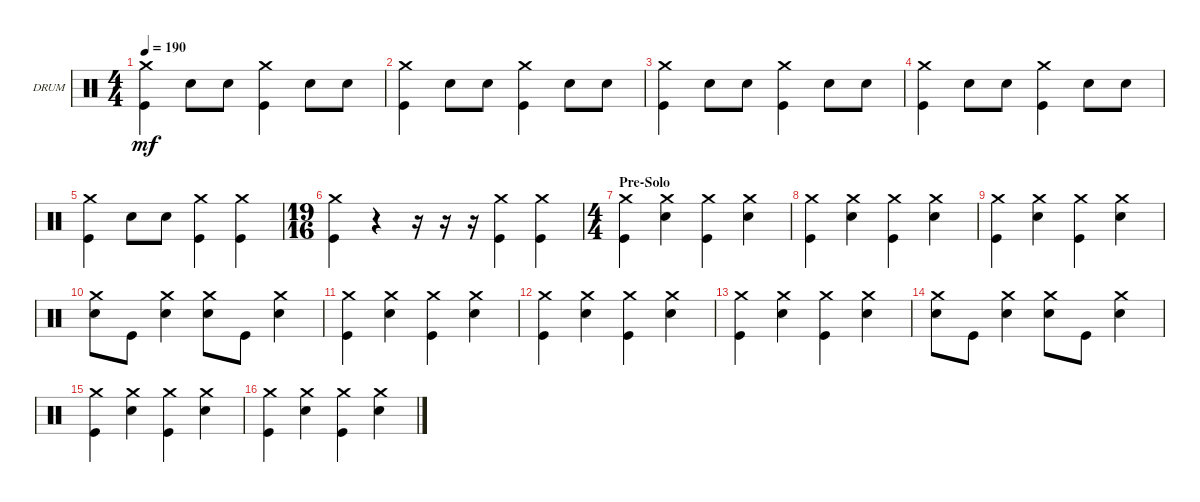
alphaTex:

\defaultSystemsLayout 4
\bracketExtendMode groupsimilarinstruments
\firstSystemTrackNameOrientation horizontal
\otherSystemsTrackNameOrientation horizontal
\track ("Drums" "DRUM") {instrument percussion}
\staff {score}
\articulation defaults
\ts (4 4)
\tempo 190
\clef neutral
\ks c
("Kick (hit)" "Crash medium (hit)").4{dy mf} "Snare (hit) 2".8 "Snare (hit) 2".8 ("Kick (hit)" "Crash medium (hit)").4 "Snare (hit) 2".8 "Snare (hit) 2".8 |
("Kick (hit)" "Crash medium (hit)").4 "Snare (hit) 2".8 "Snare (hit) 2".8 ("Kick (hit)" "Crash medium (hit)").4 "Snare (hit) 2".8 "Snare (hit) 2".8 |
("Kick (hit)" "Crash medium (hit)").4 "Snare (hit) 2".8 "Snare (hit) 2".8 ("Kick (hit)" "Crash medium (hit)").4 "Snare (hit) 2".8 "Snare (hit) 2".8 |
("Kick (hit)" "Crash medium (hit)").4 "Snare (hit) 2".8 "Snare (hit) 2".8 ("Kick (hit)" "Crash medium (hit)").4 "Snare (hit) 2".8 "Snare (hit) 2".8 |
("Kick (hit)" "Crash medium (hit)").4 "Snare (hit) 2".8 "Snare (hit) 2".8 ("Kick (hit)" "Crash medium (hit)").4 ("Kick (hit)" "Crash medium (hit)").4 |
\ts (19 16)
("Kick (hit)" "Crash medium (hit)").4 r.4 r.16 r.16 r.16 ("Kick (hit)" "Crash medium (hit)").4 ("Kick (hit)" "Crash medium (hit)").4 |
\ts (4 4)
\section ("" "Pre-Solo")
("Kick (hit)" "Crash medium (hit)").4 ("Snare (hit) 2" "Crash medium (hit)").4 ("Kick (hit)" "Crash medium (hit)").4 ("Snare (hit) 2" "Crash medium (hit)").4 |
("Kick (hit)" "Crash medium (hit)").4 ("Snare (hit) 2" "Crash medium (hit)").4 ("Kick (hit)" "Crash medium (hit)").4 ("Snare (hit) 2" "Crash medium (hit)").4 |
("Kick (hit)" "Crash medium (hit)").4 ("Snare (hit) 2" "Crash medium (hit)").4 ("Kick (hit)" "Crash medium (hit)").4 ("Snare (hit) 2" "Crash medium (hit)").4 |
("Snare (hit) 2" "Crash medium (hit)").8 "Kick (hit)".8 ("Snare (hit) 2" "Crash medium (hit)").4 ("Snare (hit) 2" "Crash medium (hit)").8 "Kick (hit)".8 ("Snare (hit) 2" "Crash medium (hit)").4 |
("Kick (hit)" "Crash medium (hit)").4 ("Snare (hit) 2" "Crash medium (hit)").4 ("Kick (hit)" "Crash medium (hit)").4 ("Snare (hit) 2" "Crash medium (hit)").4 |
("Kick (hit)" "Crash medium (hit)").4 ("Snare (hit) 2" "Crash medium (hit)").4 ("Kick (hit)" "Crash medium (hit)").4 ("Snare (hit) 2" "Crash medium (hit)").4 |
("Kick (hit)" "Crash medium (hit)").4 ("Snare (hit) 2" "Crash medium (hit)").4 ("Kick (hit)" "Crash medium (hit)").4 ("Snare (hit) 2" "Crash medium (hit)").4 |
("Snare (hit) 2" "Crash medium (hit)").8 "Kick (hit)".8 ("Snare (hit) 2" "Crash medium (hit)").4 ("Snare (hit) 2" "Crash medium (hit)").8 "Kick (hit)".8 ("Snare (hit) 2" "Crash medium (hit)").4 |
("Kick (hit)" "Crash medium (hit)").4 ("Snare (hit) 2" "Crash medium (hit)").4 ("Kick (hit)" "Crash medium (hit)").4 ("Snare (hit) 2" "Crash medium (hit)").4 |
("Kick (hit)" "Crash medium (hit)").4 ("Snare (hit) 2" "Crash medium (hit)").4 ("Kick (hit)" "Crash medium (hit)").4 ("Snare (hit) 2" "Crash medium (hit)").4
